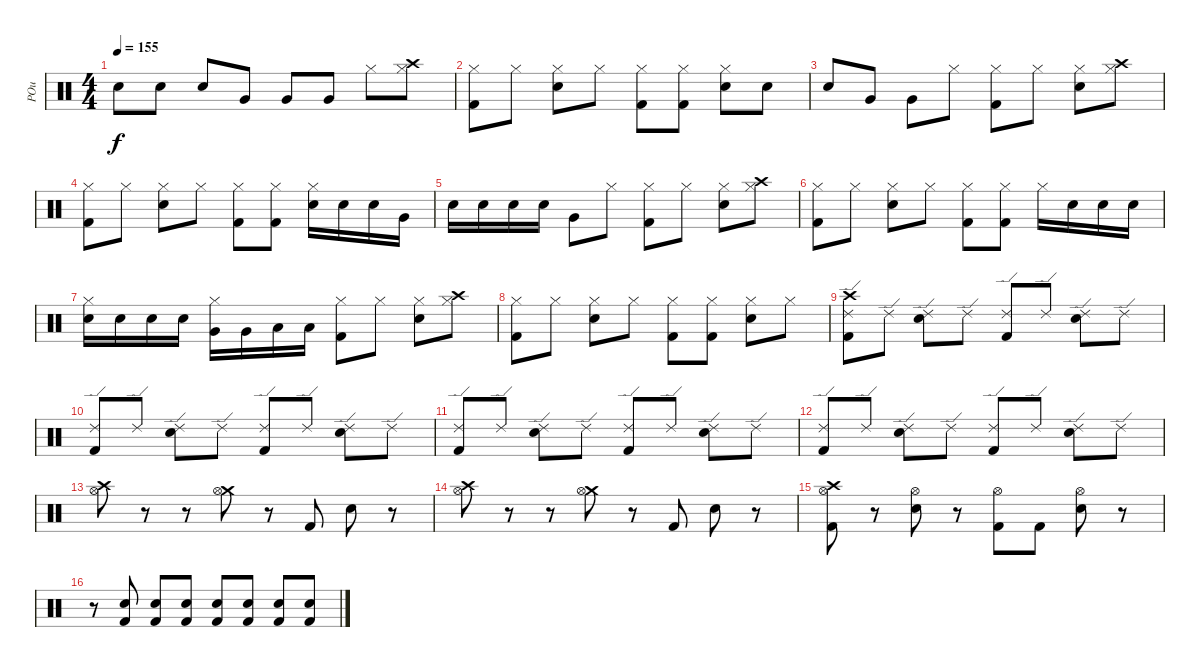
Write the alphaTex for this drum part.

\track ("POu" "POu") {instrument percussion}
\staff {score}
\articulation defaults
\ts (4 4)
\tempo 155
\clef neutral
\ks c "Electric Snare (hit)".8{dy f} "Electric Snare (hit)".8 "Electric Snare (hit)".8 "Very Low Tom (hit)".8 "Very Low Tom (hit)".8 "Very Low Tom (hit)".8 "Hi-Hat (closed)".8
("Crash high (hit)" "Hi-Hat (closed)").8 |
("Kick (hit) 2" "Hi-Hat (closed)").8 "Hi-Hat (closed)".8 ("Electric Snare (hit)" "Hi-Hat (closed)").8 "Hi-Hat (closed)".8 ("Kick (hit) 2" "Hi-Hat (closed)").8 ("Kick (hit) 2" "Hi-Hat (closed)").8 ("Electric Snare (hit)" "Hi-Hat (closed)").8 "Electric Snare (hit)".8 |
"Electric Snare (hit)".8 "Very Low Tom (hit)".8 "Very Low Tom (hit)".8 "Hi-Hat (closed)".8 ("Kick (hit) 2" "Hi-Hat (closed)").8 "Hi-Hat (closed)".8 ("Electric Snare (hit)" "Hi-Hat (closed)").8 ("Crash high (hit)" "Hi-Hat (closed)").8 |
("Kick (hit) 2" "Hi-Hat (closed)").8 "Hi-Hat (closed)".8 ("Electric Snare (hit)" "Hi-Hat (closed)").8 "Hi-Hat (closed)".8 ("Kick (hit) 2" "Hi-Hat (closed)").8 ("Kick (hit) 2" "Hi-Hat (closed)").8 ("Electric Snare (hit)" "Hi-Hat (closed)").16 "Electric Snare (hit)".16 "Electric Snare (hit)".16 "Very Low Tom (hit)".16 |
"Electric Snare (hit)".16 "Electric Snare (hit)".16 "Electric Snare (hit)".16 "Electric Snare (hit)".16 "Very Low Tom (hit)".8 "Hi-Hat (closed)".8 ("Kick (hit) 2" "Hi-Hat (closed)").8 "Hi-Hat (closed)".8 ("Electric Snare (hit)" "Hi-Hat (closed)").8 ("Crash high (hit)" "Hi-Hat (closed)").8 |
("Kick (hit) 2" "Hi-Hat (closed)").8 "Hi-Hat (closed)".8 ("Electric Snare (hit)" "Hi-Hat (closed)").8 "Hi-Hat (closed)".8 ("Kick (hit) 2" "Hi-Hat (closed)").8 ("Kick (hit) 2" "Hi-Hat (closed)").8 "Hi-Hat (closed)".16 "Electric Snare (hit)".16 "Electric Snare (hit)".16 "Electric Snare (hit)".16 |
("Electric Snare (hit)" "Hi-Hat (closed)").16 "Electric Snare (hit)".16 "Electric Snare (hit)".16 "Electric Snare (hit)".16 ("Very Low Tom (hit)" "Hi-Hat (closed)").16 "Very Low Tom (hit)".16 "Low Floor Tom (hit)".16 "Low Floor Tom (hit)".16 ("Kick (hit) 2" "Hi-Hat (closed)").8 "Hi-Hat (closed)".8 ("Electric Snare (hit)" "Hi-Hat (closed)").8 ("Crash high (hit)" "Hi-Hat (closed)").8 |
("Kick (hit) 2" "Hi-Hat (closed)").8 "Hi-Hat (closed)".8 ("Electric Snare (hit)" "Hi-Hat (closed)").8 "Hi-Hat (closed)".8 ("Kick (hit) 2" "Hi-Hat (closed)").8 ("Kick (hit) 2" "Hi-Hat (closed)").8 ("Electric Snare (hit)" "Hi-Hat (closed)").8 "Hi-Hat (closed)".8 |
("Crash high (hit)" "Kick (hit) 2" "Ride (edge) 2").8 "Ride (edge) 2".8 ("Electric Snare (hit)" "Ride (edge) 2").8 "Ride (edge) 2".8 ("Kick (hit) 2" "Ride (edge) 2").8 "Ride (edge) 2".8 ("Electric Snare (hit)" "Ride (edge) 2").8 "Ride (edge) 2".8 |
("Kick (hit) 2" "Ride (edge) 2").8 "Ride (edge) 2".8 ("Electric Snare (hit)" "Ride (edge) 2").8 "Ride (edge) 2".8 ("Kick (hit) 2" "Ride (edge) 2").8 "Ride (edge) 2".8 ("Electric Snare (hit)" "Ride (edge) 2").8 "Ride (edge) 2".8 |
("Kick (hit) 2" "Ride (edge) 2").8 "Ride (edge) 2".8 ("Electric Snare (hit)" "Ride (edge) 2").8 "Ride (edge) 2".8 ("Kick (hit) 2" "Ride (edge) 2").8 "Ride (edge) 2".8 ("Electric Snare (hit)" "Ride (edge) 2").8 "Ride (edge) 2".8 |
("Kick (hit) 2" "Ride (edge) 2").8 "Ride (edge) 2".8 ("Electric Snare (hit)" "Ride (edge) 2").8 "Ride (edge) 2".8 ("Kick (hit) 2" "Ride (edge) 2").8 "Ride (edge) 2".8 ("Electric Snare (hit)" "Ride (edge) 2").8 "Ride (edge) 2".8 |
("Crash high (hit)" "Hi-Hat (open)").8 r.8 r.8 ("Crash medium (hit)" "Hi-Hat (open)").8 r.8 "Kick (hit) 2".8 "Electric Snare (hit)".8 r.8 |
("Crash high (hit)" "Hi-Hat (open)").8 r.8 r.8 ("Crash medium (hit)" "Hi-Hat (open)").8 r.8 "Kick (hit) 2".8 "Electric Snare (hit)".8 r.8 |
("Crash high (hit)" "Kick (hit) 2" "Hi-Hat (open)").8 r.8 ("Electric Snare (hit)" "Hi-Hat (open)").8 r.8 ("Kick (hit) 2" "Hi-Hat (open)").8 "Kick (hit) 2".8 ("Electric Snare (hit)" "Hi-Hat (open)").8 r.8 |
r.8 ("Electric Snare (hit)" "Kick (hit) 2").8 ("Electric Snare (hit)" "Kick (hit) 2").8 ("Electric Snare (hit)" "Kick (hit) 2").8 ("Electric Snare (hit)" "Kick (hit) 2").8 ("Electric Snare (hit)" "Kick (hit) 2").8 ("Electric Snare (hit)" "Kick (hit) 2").8 ("Electric Snare (hit)" "Kick (hit) 2").8
